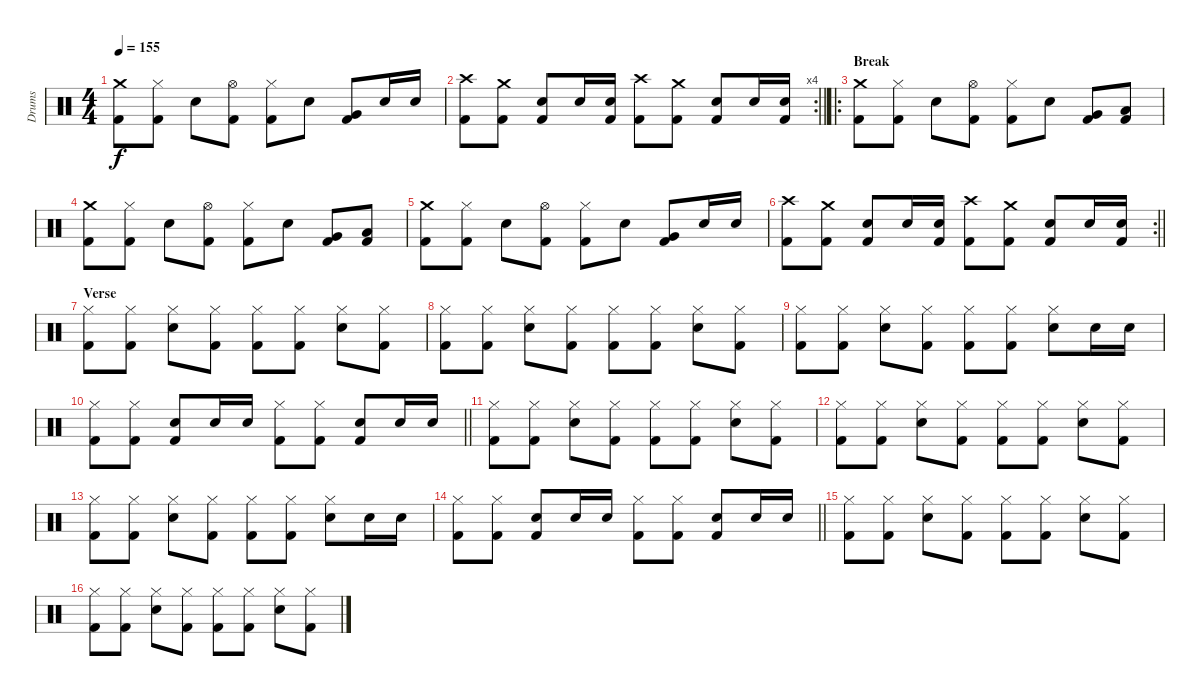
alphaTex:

\track ("Drums" "Drums") {instrument percussion}
\staff {score}
\articulation defaults
\ts (4 4)
\tempo 155
\clef neutral
\ks c
("Crash medium (hit)" "Kick (hit) 2").8{dy f} ("Hi-Hat (closed)" "Kick (hit) 2").8 "Snare (hit) 2".8 ("Hi-Hat (open)" "Kick (hit) 2").8 ("Hi-Hat (closed)" "Kick (hit) 2").8 "Snare (hit) 2".8 ("Very Low Tom (hit)" "Kick (hit) 2").8 "Snare (hit) 2".16 "Snare (hit) 2".16 |
\rc 4
\barLineRight lightlight
("Crash high (hit)" "Kick (hit) 2").8 ("Crash medium (hit)" "Kick (hit) 2").8 ("Snare (hit) 2" "Kick (hit) 2").8 "Snare (hit) 2".16 ("Snare (hit) 2" "Kick (hit) 2").16 ("Crash high (hit)" "Kick (hit) 2").8 ("Crash medium (hit)" "Kick (hit) 2").8 ("Snare (hit) 2" "Kick (hit) 2").8 "Snare (hit) 2".16 ("Snare (hit) 2" "Kick (hit) 2").16 |
\ro
\section ("" "Break")
("Crash medium (hit)" "Kick (hit) 2").8 ("Hi-Hat (closed)" "Kick (hit) 2").8 "Snare (hit) 2".8 ("Hi-Hat (open)" "Kick (hit) 2").8 ("Hi-Hat (closed)" "Kick (hit) 2").8 "Snare (hit) 2".8 ("Very Low Tom (hit)" "Kick (hit) 2").8 ("Low Floor Tom (hit)" "Kick (hit) 2").8 |
("Crash medium (hit)" "Kick (hit) 2").8 ("Hi-Hat (closed)" "Kick (hit) 2").8 "Snare (hit) 2".8 ("Hi-Hat (open)" "Kick (hit) 2").8 ("Hi-Hat (closed)" "Kick (hit) 2").8 "Snare (hit) 2".8 ("Very Low Tom (hit)" "Kick (hit) 2").8 ("Low Floor Tom (hit)" "Kick (hit) 2").8 |
("Crash medium (hit)" "Kick (hit) 2").8 ("Hi-Hat (closed)" "Kick (hit) 2").8 "Snare (hit) 2".8 ("Hi-Hat (open)" "Kick (hit) 2").8 ("Hi-Hat (closed)" "Kick (hit) 2").8 "Snare (hit) 2".8 ("Very Low Tom (hit)" "Kick (hit) 2").8 "Snare (hit) 2".16 "Snare (hit) 2".16 |
\rc 2
\barLineRight lightlight
("Crash high (hit)" "Kick (hit) 2").8 ("Crash medium (hit)" "Kick (hit) 2").8 ("Snare (hit) 2" "Kick (hit) 2").8 "Snare (hit) 2".16 ("Snare (hit) 2" "Kick (hit) 2").16 ("Crash high (hit)" "Kick (hit) 2").8 ("Crash medium (hit)" "Kick (hit) 2").8 ("Snare (hit) 2" "Kick (hit) 2").8 "Snare (hit) 2".16 ("Snare (hit) 2" "Kick (hit) 2").16 |
\section ("" "Verse")
("Hi-Hat (closed)" "Kick (hit) 2").8 ("Hi-Hat (closed)" "Kick (hit) 2").8 ("Hi-Hat (closed)" "Snare (hit) 2").8 ("Hi-Hat (closed)" "Kick (hit) 2").8 ("Hi-Hat (closed)" "Kick (hit) 2").8 ("Hi-Hat (closed)" "Kick (hit) 2").8 ("Hi-Hat (closed)" "Snare (hit) 2").8 ("Hi-Hat (closed)" "Kick (hit) 2").8 |
("Hi-Hat (closed)" "Kick (hit) 2").8 ("Hi-Hat (closed)" "Kick (hit) 2").8 ("Hi-Hat (closed)" "Snare (hit) 2").8 ("Hi-Hat (closed)" "Kick (hit) 2").8 ("Hi-Hat (closed)" "Kick (hit) 2").8 ("Hi-Hat (closed)" "Kick (hit) 2").8 ("Hi-Hat (closed)" "Snare (hit) 2").8 ("Hi-Hat (closed)" "Kick (hit) 2").8 |
("Hi-Hat (closed)" "Kick (hit) 2").8 ("Hi-Hat (closed)" "Kick (hit) 2").8 ("Hi-Hat (closed)" "Snare (hit) 2").8 ("Hi-Hat (closed)" "Kick (hit) 2").8 ("Hi-Hat (closed)" "Kick (hit) 2").8 ("Hi-Hat (closed)" "Kick (hit) 2").8 ("Hi-Hat (closed)" "Snare (hit) 2").8 "Snare (hit) 2".16 "Snare (hit) 2".16 |
\barLineRight lightlight
("Hi-Hat (closed)" "Kick (hit) 2").8 ("Hi-Hat (closed)" "Kick (hit) 2").8 ("Snare (hit) 2" "Kick (hit) 2").8 "Snare (hit) 2".16 "Snare (hit) 2".16 ("Hi-Hat (closed)" "Kick (hit) 2").8 ("Hi-Hat (closed)" "Kick (hit) 2").8 ("Snare (hit) 2" "Kick (hit) 2").8 "Snare (hit) 2".16 "Snare (hit) 2".16 |
("Hi-Hat (closed)" "Kick (hit) 2").8 ("Hi-Hat (closed)" "Kick (hit) 2").8 ("Hi-Hat (closed)" "Snare (hit) 2").8 ("Hi-Hat (closed)" "Kick (hit) 2").8 ("Hi-Hat (closed)" "Kick (hit) 2").8 ("Hi-Hat (closed)" "Kick (hit) 2").8 ("Hi-Hat (closed)" "Snare (hit) 2").8 ("Hi-Hat (closed)" "Kick (hit) 2").8 |
("Hi-Hat (closed)" "Kick (hit) 2").8 ("Hi-Hat (closed)" "Kick (hit) 2").8 ("Hi-Hat (closed)" "Snare (hit) 2").8 ("Hi-Hat (closed)" "Kick (hit) 2").8 ("Hi-Hat (closed)" "Kick (hit) 2").8 ("Hi-Hat (closed)" "Kick (hit) 2").8 ("Hi-Hat (closed)" "Snare (hit) 2").8 ("Hi-Hat (closed)" "Kick (hit) 2").8 |
("Hi-Hat (closed)" "Kick (hit) 2").8 ("Hi-Hat (closed)" "Kick (hit) 2").8 ("Hi-Hat (closed)" "Snare (hit) 2").8 ("Hi-Hat (closed)" "Kick (hit) 2").8 ("Hi-Hat (closed)" "Kick (hit) 2").8 ("Hi-Hat (closed)" "Kick (hit) 2").8 ("Hi-Hat (closed)" "Snare (hit) 2").8 "Snare (hit) 2".16 "Snare (hit) 2".16 |
\barLineRight lightlight
("Hi-Hat (closed)" "Kick (hit) 2").8 ("Hi-Hat (closed)" "Kick (hit) 2").8 ("Snare (hit) 2" "Kick (hit) 2").8 "Snare (hit) 2".16 "Snare (hit) 2".16 ("Hi-Hat (closed)" "Kick (hit) 2").8 ("Hi-Hat (closed)" "Kick (hit) 2").8 ("Snare (hit) 2" "Kick (hit) 2").8 "Snare (hit) 2".16 "Snare (hit) 2".16 |
("Hi-Hat (closed)" "Kick (hit) 2").8 ("Hi-Hat (closed)" "Kick (hit) 2").8 ("Hi-Hat (closed)" "Snare (hit) 2").8 ("Hi-Hat (closed)" "Kick (hit) 2").8 ("Hi-Hat (closed)" "Kick (hit) 2").8 ("Hi-Hat (closed)" "Kick (hit) 2").8 ("Hi-Hat (closed)" "Snare (hit) 2").8 ("Hi-Hat (closed)" "Kick (hit) 2").8 |
("Hi-Hat (closed)" "Kick (hit) 2").8 ("Hi-Hat (closed)" "Kick (hit) 2").8 ("Hi-Hat (closed)" "Snare (hit) 2").8 ("Hi-Hat (closed)" "Kick (hit) 2").8 ("Hi-Hat (closed)" "Kick (hit) 2").8 ("Hi-Hat (closed)" "Kick (hit) 2").8 ("Hi-Hat (closed)" "Snare (hit) 2").8 ("Hi-Hat (closed)" "Kick (hit) 2").8
